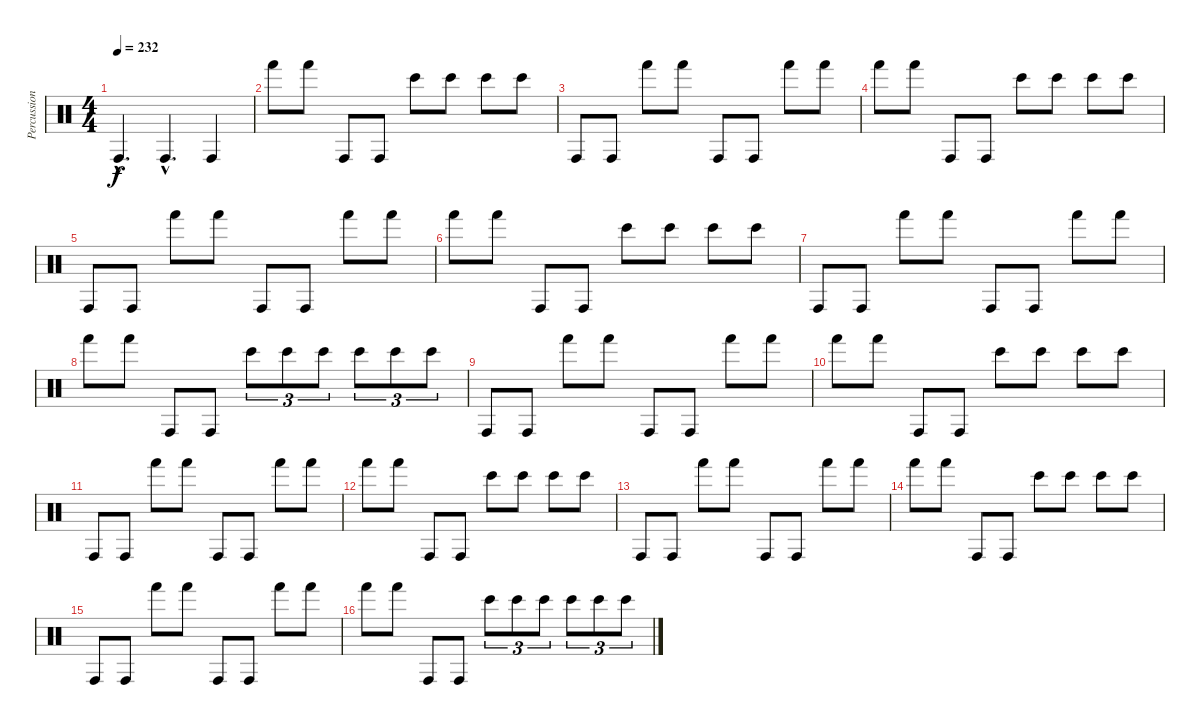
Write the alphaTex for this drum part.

\track ("Percussion" "Percussion") {instrument percussion}
\staff {score}
\articulation defaults
\ts (4 4)
\section ("" "")
\tempo 232
\clef neutral
\ks c "Conga high (hit)"{hac}.4{d dy f} "Conga high (hit)"{hac}.4{d} "Conga high (hit)".4
|
"Hand (hit)".8 "Hand (hit)".8 "Conga high (hit)".8 "Conga high (hit)".8 "Bongo High (hit)".8 "Bongo High (hit)".8 "Bongo High (hit)".8 "Bongo High (hit)".8 |
"Conga high (hit)".8 "Conga high (hit)".8 "Hand (hit)".8 "Hand (hit)".8 "Conga high (hit)".8 "Conga high (hit)".8 "Hand (hit)".8 "Hand (hit)".8 |
"Hand (hit)".8 "Hand (hit)".8 "Conga high (hit)".8 "Conga high (hit)".8 "Bongo High (hit)".8 "Bongo High (hit)".8 "Bongo High (hit)".8 "Bongo High (hit)".8 |
"Conga high (hit)".8 "Conga high (hit)".8 "Hand (hit)".8 "Hand (hit)".8 "Conga high (hit)".8 "Conga high (hit)".8 "Hand (hit)".8 "Hand (hit)".8 |
"Hand (hit)".8 "Hand (hit)".8 "Conga high (hit)".8 "Conga high (hit)".8 "Bongo High (hit)".8 "Bongo High (hit)".8 "Bongo High (hit)".8 "Bongo High (hit)".8 |
"Conga high (hit)".8 "Conga high (hit)".8 "Hand (hit)".8 "Hand (hit)".8 "Conga high (hit)".8 "Conga high (hit)".8 "Hand (hit)".8 "Hand (hit)".8 |
"Hand (hit)".8 "Hand (hit)".8 "Conga high (hit)".8 "Conga high (hit)".8 "Bongo High (hit)".8{tu (3 2)} "Bongo High (hit)".8{tu (3 2)} "Bongo High (hit)".8{tu (3 2)} "Bongo High (hit)".8{tu (3 2)} "Bongo High (hit)".8{tu (3 2)} "Bongo High (hit)".8{tu (3 2)} |
"Conga high (hit)".8 "Conga high (hit)".8 "Hand (hit)".8 "Hand (hit)".8 "Conga high (hit)".8 "Conga high (hit)".8 "Hand (hit)".8 "Hand (hit)".8 |
"Hand (hit)".8 "Hand (hit)".8 "Conga high (hit)".8 "Conga high (hit)".8 "Bongo High (hit)".8 "Bongo High (hit)".8 "Bongo High (hit)".8 "Bongo High (hit)".8 |
"Conga high (hit)".8 "Conga high (hit)".8 "Hand (hit)".8 "Hand (hit)".8 "Conga high (hit)".8 "Conga high (hit)".8 "Hand (hit)".8 "Hand (hit)".8 |
"Hand (hit)".8 "Hand (hit)".8 "Conga high (hit)".8 "Conga high (hit)".8 "Bongo High (hit)".8 "Bongo High (hit)".8 "Bongo High (hit)".8 "Bongo High (hit)".8 |
"Conga high (hit)".8 "Conga high (hit)".8 "Hand (hit)".8 "Hand (hit)".8 "Conga high (hit)".8 "Conga high (hit)".8 "Hand (hit)".8 "Hand (hit)".8 |
"Hand (hit)".8 "Hand (hit)".8 "Conga high (hit)".8 "Conga high (hit)".8 "Bongo High (hit)".8 "Bongo High (hit)".8 "Bongo High (hit)".8 "Bongo High (hit)".8 |
"Conga high (hit)".8 "Conga high (hit)".8 "Hand (hit)".8 "Hand (hit)".8 "Conga high (hit)".8 "Conga high (hit)".8 "Hand (hit)".8 "Hand (hit)".8 |
"Hand (hit)".8 "Hand (hit)".8 "Conga high (hit)".8 "Conga high (hit)".8 "Bongo High (hit)".8{tu (3 2)} "Bongo High (hit)".8{tu (3 2)} "Bongo High (hit)".8{tu (3 2)} "Bongo High (hit)".8{tu (3 2)} "Bongo High (hit)".8{tu (3 2)} "Bongo High (hit)".8{tu (3 2)}
